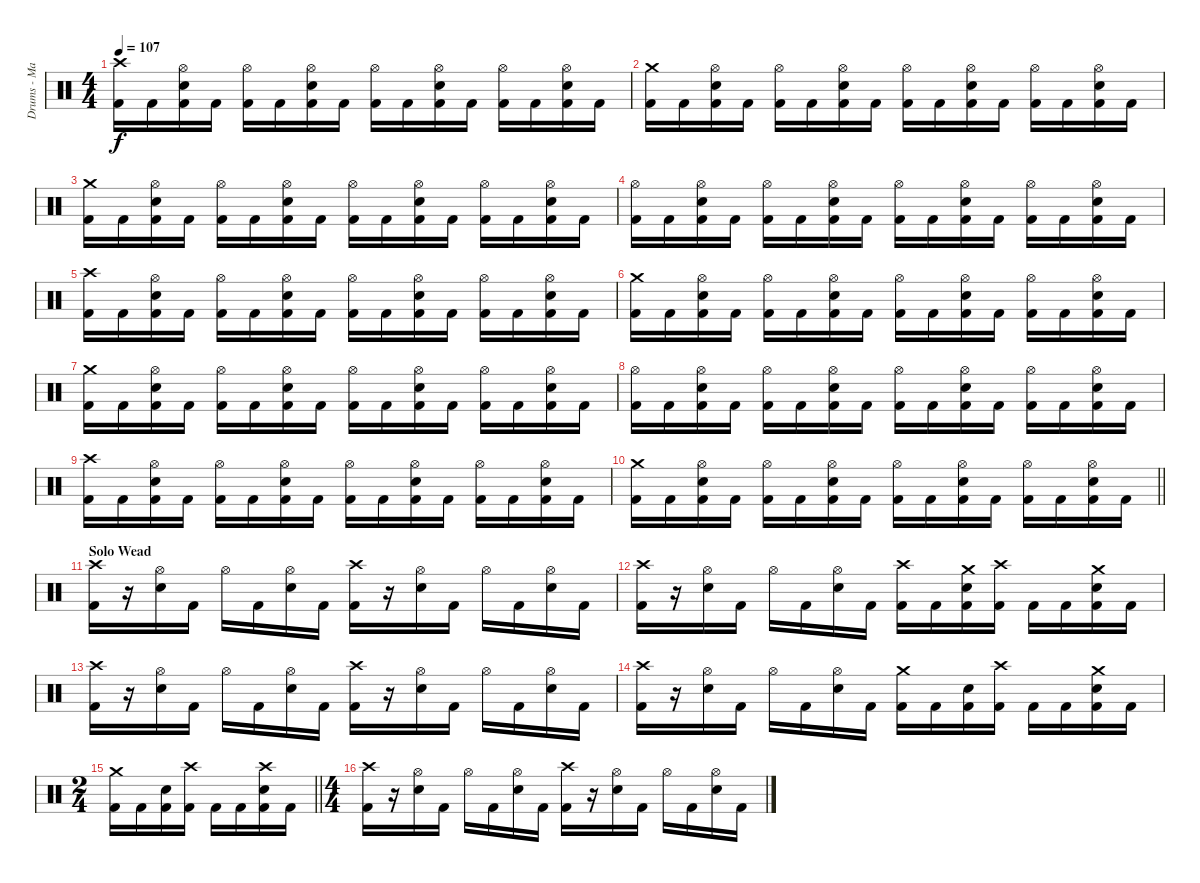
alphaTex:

\track ("Drums - Matt Thompson" "Drums - Ma") {instrument percussion}
\staff {score}
\articulation defaults
\ts (4 4)
\tempo 107
\clef neutral
\ks c
("Crash high (hit)" "Kick (hit) 2").16{dy f} "Kick (hit) 2".16 ("Hi-Hat (open)" "Snare (hit) 2" "Kick (hit) 2").16 "Kick (hit) 2".16 ("Hi-Hat (open)" "Kick (hit) 2").16 "Kick (hit) 2".16 ("Hi-Hat (open)" "Snare (hit) 2" "Kick (hit) 2").16 "Kick (hit) 2".16 ("Hi-Hat (open)" "Kick (hit) 2").16 "Kick (hit) 2".16 ("Hi-Hat (open)" "Snare (hit) 2" "Kick (hit) 2").16 "Kick (hit) 2".16 ("Hi-Hat (open)" "Kick (hit) 2").16 "Kick (hit) 2".16 ("Hi-Hat (open)" "Snare (hit) 2" "Kick (hit) 2").16 "Kick (hit) 2".16 |
("Crash medium (hit)" "Kick (hit) 2").16 "Kick (hit) 2".16 ("Hi-Hat (open)" "Snare (hit) 2" "Kick (hit) 2").16 "Kick (hit) 2".16 ("Hi-Hat (open)" "Kick (hit) 2").16 "Kick (hit) 2".16 ("Hi-Hat (open)" "Snare (hit) 2" "Kick (hit) 2").16 "Kick (hit) 2".16 ("Hi-Hat (open)" "Kick (hit) 2").16 "Kick (hit) 2".16 ("Hi-Hat (open)" "Snare (hit) 2" "Kick (hit) 2").16 "Kick (hit) 2".16 ("Hi-Hat (open)" "Kick (hit) 2").16 "Kick (hit) 2".16 ("Hi-Hat (open)" "Snare (hit) 2" "Kick (hit) 2").16 "Kick (hit) 2".16 |
("Crash medium (hit)" "Kick (hit) 2").16 "Kick (hit) 2".16 ("Hi-Hat (open)" "Snare (hit) 2" "Kick (hit) 2").16 "Kick (hit) 2".16 ("Hi-Hat (open)" "Kick (hit) 2").16 "Kick (hit) 2".16 ("Hi-Hat (open)" "Snare (hit) 2" "Kick (hit) 2").16 "Kick (hit) 2".16 ("Hi-Hat (open)" "Kick (hit) 2").16 "Kick (hit) 2".16 ("Hi-Hat (open)" "Snare (hit) 2" "Kick (hit) 2").16 "Kick (hit) 2".16 ("Hi-Hat (open)" "Kick (hit) 2").16 "Kick (hit) 2".16 ("Hi-Hat (open)" "Snare (hit) 2" "Kick (hit) 2").16 "Kick (hit) 2".16 |
("Hi-Hat (open)" "Kick (hit) 2").16 "Kick (hit) 2".16 ("Hi-Hat (open)" "Snare (hit) 2" "Kick (hit) 2").16 "Kick (hit) 2".16 ("Hi-Hat (open)" "Kick (hit) 2").16 "Kick (hit) 2".16 ("Hi-Hat (open)" "Snare (hit) 2" "Kick (hit) 2").16 "Kick (hit) 2".16 ("Hi-Hat (open)" "Kick (hit) 2").16 "Kick (hit) 2".16 ("Hi-Hat (open)" "Snare (hit) 2" "Kick (hit) 2").16 "Kick (hit) 2".16 ("Hi-Hat (open)" "Kick (hit) 2").16 "Kick (hit) 2".16 ("Hi-Hat (open)" "Snare (hit) 2" "Kick (hit) 2").16 "Kick (hit) 2".16 |
("Crash high (hit)" "Kick (hit) 2").16 "Kick (hit) 2".16 ("Hi-Hat (open)" "Snare (hit) 2" "Kick (hit) 2").16 "Kick (hit) 2".16 ("Hi-Hat (open)" "Kick (hit) 2").16 "Kick (hit) 2".16 ("Hi-Hat (open)" "Snare (hit) 2" "Kick (hit) 2").16 "Kick (hit) 2".16 ("Hi-Hat (open)" "Kick (hit) 2").16 "Kick (hit) 2".16 ("Hi-Hat (open)" "Snare (hit) 2" "Kick (hit) 2").16 "Kick (hit) 2".16 ("Hi-Hat (open)" "Kick (hit) 2").16 "Kick (hit) 2".16 ("Hi-Hat (open)" "Snare (hit) 2" "Kick (hit) 2").16 "Kick (hit) 2".16 |
("Crash medium (hit)" "Kick (hit) 2").16 "Kick (hit) 2".16 ("Hi-Hat (open)" "Snare (hit) 2" "Kick (hit) 2").16 "Kick (hit) 2".16 ("Hi-Hat (open)" "Kick (hit) 2").16 "Kick (hit) 2".16 ("Hi-Hat (open)" "Snare (hit) 2" "Kick (hit) 2").16 "Kick (hit) 2".16 ("Hi-Hat (open)" "Kick (hit) 2").16 "Kick (hit) 2".16 ("Hi-Hat (open)" "Snare (hit) 2" "Kick (hit) 2").16 "Kick (hit) 2".16 ("Hi-Hat (open)" "Kick (hit) 2").16 "Kick (hit) 2".16 ("Hi-Hat (open)" "Snare (hit) 2" "Kick (hit) 2").16 "Kick (hit) 2".16 |
("Crash medium (hit)" "Kick (hit) 2").16 "Kick (hit) 2".16 ("Hi-Hat (open)" "Snare (hit) 2" "Kick (hit) 2").16 "Kick (hit) 2".16 ("Hi-Hat (open)" "Kick (hit) 2").16 "Kick (hit) 2".16 ("Hi-Hat (open)" "Snare (hit) 2" "Kick (hit) 2").16 "Kick (hit) 2".16 ("Hi-Hat (open)" "Kick (hit) 2").16 "Kick (hit) 2".16 ("Hi-Hat (open)" "Snare (hit) 2" "Kick (hit) 2").16 "Kick (hit) 2".16 ("Hi-Hat (open)" "Kick (hit) 2").16 "Kick (hit) 2".16 ("Hi-Hat (open)" "Snare (hit) 2" "Kick (hit) 2").16 "Kick (hit) 2".16 |
("Hi-Hat (open)" "Kick (hit) 2").16 "Kick (hit) 2".16 ("Hi-Hat (open)" "Snare (hit) 2" "Kick (hit) 2").16 "Kick (hit) 2".16 ("Hi-Hat (open)" "Kick (hit) 2").16 "Kick (hit) 2".16 ("Hi-Hat (open)" "Snare (hit) 2" "Kick (hit) 2").16 "Kick (hit) 2".16 ("Hi-Hat (open)" "Kick (hit) 2").16 "Kick (hit) 2".16 ("Hi-Hat (open)" "Snare (hit) 2" "Kick (hit) 2").16 "Kick (hit) 2".16 ("Hi-Hat (open)" "Kick (hit) 2").16 "Kick (hit) 2".16 ("Hi-Hat (open)" "Snare (hit) 2" "Kick (hit) 2").16 "Kick (hit) 2".16 |
("Crash high (hit)" "Kick (hit) 2").16 "Kick (hit) 2".16 ("Hi-Hat (open)" "Snare (hit) 2" "Kick (hit) 2").16 "Kick (hit) 2".16 ("Hi-Hat (open)" "Kick (hit) 2").16 "Kick (hit) 2".16 ("Hi-Hat (open)" "Snare (hit) 2" "Kick (hit) 2").16 "Kick (hit) 2".16 ("Hi-Hat (open)" "Kick (hit) 2").16 "Kick (hit) 2".16 ("Hi-Hat (open)" "Snare (hit) 2" "Kick (hit) 2").16 "Kick (hit) 2".16 ("Hi-Hat (open)" "Kick (hit) 2").16 "Kick (hit) 2".16 ("Hi-Hat (open)" "Snare (hit) 2" "Kick (hit) 2").16 "Kick (hit) 2".16 |
\barLineRight lightlight
("Crash medium (hit)" "Kick (hit) 2").16 "Kick (hit) 2".16 ("Hi-Hat (open)" "Snare (hit) 2" "Kick (hit) 2").16 "Kick (hit) 2".16 ("Hi-Hat (open)" "Kick (hit) 2").16 "Kick (hit) 2".16 ("Hi-Hat (open)" "Snare (hit) 2" "Kick (hit) 2").16 "Kick (hit) 2".16 ("Hi-Hat (open)" "Kick (hit) 2").16 "Kick (hit) 2".16 ("Hi-Hat (open)" "Snare (hit) 2" "Kick (hit) 2").16 "Kick (hit) 2".16 ("Hi-Hat (open)" "Kick (hit) 2").16 "Kick (hit) 2".16 ("Hi-Hat (open)" "Snare (hit) 2" "Kick (hit) 2").16 "Kick (hit) 2".16 |
\section ("" "Solo Wead")
("Crash high (hit)" "Kick (hit) 2").16 r.16 ("Hi-Hat (open)" "Snare (hit) 2").16 "Kick (hit) 2".16 "Hi-Hat (open)".16 "Kick (hit) 2".16 ("Hi-Hat (open)" "Snare (hit) 2").16 "Kick (hit) 2".16 ("Crash high (hit)" "Kick (hit) 2").16 r.16 ("Hi-Hat (open)" "Snare (hit) 2").16 "Kick (hit) 2".16 "Hi-Hat (open)".16 "Kick (hit) 2".16 ("Hi-Hat (open)" "Snare (hit) 2").16 "Kick (hit) 2".16 |
("Crash high (hit)" "Kick (hit) 2").16 r.16 ("Hi-Hat (open)" "Snare (hit) 2").16 "Kick (hit) 2".16 "Hi-Hat (open)".16 "Kick (hit) 2".16 ("Hi-Hat (open)" "Snare (hit) 2").16 "Kick (hit) 2".16 ("Crash high (hit)" "Kick (hit) 2").16 "Kick (hit) 2".16 ("Crash medium (hit)" "Snare (hit) 2" "Kick (hit) 2").16 ("Crash high (hit)" "Kick (hit) 2").16 "Kick (hit) 2".16 "Kick (hit) 2".16 ("Crash medium (hit)" "Snare (hit) 2" "Kick (hit) 2").16 "Kick (hit) 2".16 |
("Crash high (hit)" "Kick (hit) 2").16 r.16 ("Hi-Hat (open)" "Snare (hit) 2").16 "Kick (hit) 2".16 "Hi-Hat (open)".16 "Kick (hit) 2".16 ("Hi-Hat (open)" "Snare (hit) 2").16 "Kick (hit) 2".16 ("Crash high (hit)" "Kick (hit) 2").16 r.16 ("Hi-Hat (open)" "Snare (hit) 2").16 "Kick (hit) 2".16 "Hi-Hat (open)".16 "Kick (hit) 2".16 ("Hi-Hat (open)" "Snare (hit) 2").16 "Kick (hit) 2".16 |
("Crash high (hit)" "Kick (hit) 2").16 r.16 ("Hi-Hat (open)" "Snare (hit) 2").16 "Kick (hit) 2".16 "Hi-Hat (open)".16 "Kick (hit) 2".16 ("Hi-Hat (open)" "Snare (hit) 2").16 "Kick (hit) 2".16 ("Crash medium (hit)" "Kick (hit) 2").16 "Kick (hit) 2".16 ("Snare (hit) 2" "Kick (hit) 2").16 ("Crash high (hit)" "Kick (hit) 2").16 "Kick (hit) 2".16 "Kick (hit) 2".16 ("Crash medium (hit)" "Snare (hit) 2" "Kick (hit) 2").16 "Kick (hit) 2".16 |
\ts (2 4)
\barLineRight lightlight
("Crash medium (hit)" "Kick (hit) 2").16 "Kick (hit) 2".16 ("Snare (hit) 2" "Kick (hit) 2").16 ("Crash high (hit)" "Kick (hit) 2").16 "Kick (hit) 2".16 "Kick (hit) 2".16 ("Crash high (hit)" "Snare (hit) 2" "Kick (hit) 2").16 "Kick (hit) 2".16 |
\ts (4 4)
("Crash high (hit)" "Kick (hit) 2").16 r.16 ("Hi-Hat (open)" "Snare (hit) 2").16 "Kick (hit) 2".16 "Hi-Hat (open)".16 "Kick (hit) 2".16 ("Hi-Hat (open)" "Snare (hit) 2").16 "Kick (hit) 2".16 ("Crash high (hit)" "Kick (hit) 2").16 r.16 ("Hi-Hat (open)" "Snare (hit) 2").16 "Kick (hit) 2".16 "Hi-Hat (open)".16 "Kick (hit) 2".16 ("Hi-Hat (open)" "Snare (hit) 2").16 "Kick (hit) 2".16
